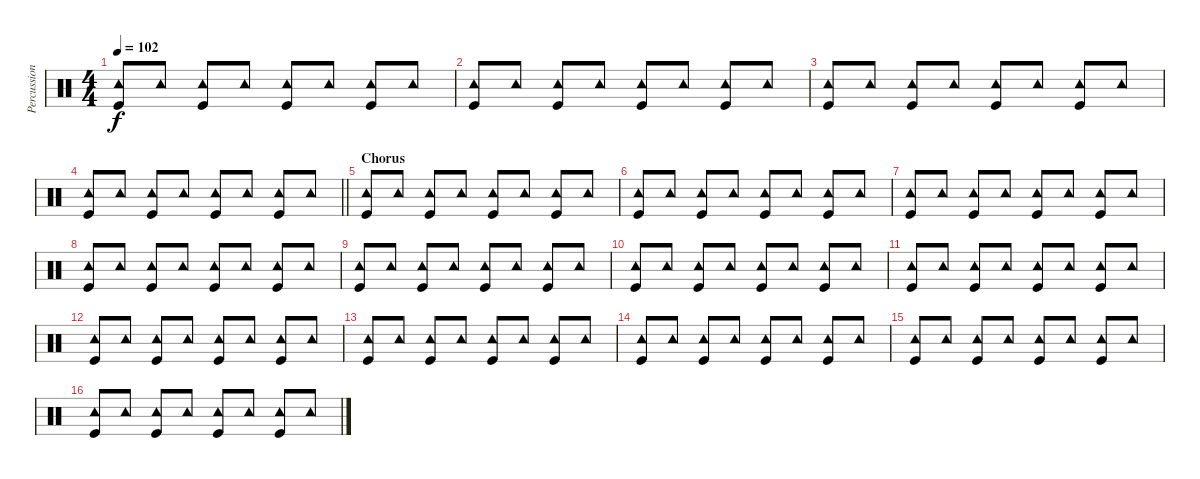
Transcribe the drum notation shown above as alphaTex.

\track ("Percussion" "Percussion") {instrument percussion}
\staff {score}
\articulation defaults
\ts (4 4)
\tempo 102
\clef neutral
\ks c
("Tambourine (hit)" "Kick (hit)").8{dy f} "Tambourine (hit)".8 ("Tambourine (hit)" "Kick (hit)").8 "Tambourine (hit)".8 ("Tambourine (hit)" "Kick (hit)").8 "Tambourine (hit)".8 ("Tambourine (hit)" "Kick (hit)").8 "Tambourine (hit)".8 |
("Tambourine (hit)" "Kick (hit)").8 "Tambourine (hit)".8 ("Tambourine (hit)" "Kick (hit)").8 "Tambourine (hit)".8 ("Tambourine (hit)" "Kick (hit)").8 "Tambourine (hit)".8 ("Tambourine (hit)" "Kick (hit)").8 "Tambourine (hit)".8 |
("Tambourine (hit)" "Kick (hit)").8 "Tambourine (hit)".8 ("Tambourine (hit)" "Kick (hit)").8 "Tambourine (hit)".8 ("Tambourine (hit)" "Kick (hit)").8 "Tambourine (hit)".8 ("Tambourine (hit)" "Kick (hit)").8 "Tambourine (hit)".8 |
\barLineRight lightlight
("Tambourine (hit)" "Kick (hit)").8 "Tambourine (hit)".8 ("Tambourine (hit)" "Kick (hit)").8 "Tambourine (hit)".8 ("Tambourine (hit)" "Kick (hit)").8 "Tambourine (hit)".8 ("Tambourine (hit)" "Kick (hit)").8 "Tambourine (hit)".8 |
\section ("" "Chorus")
("Tambourine (hit)" "Kick (hit)").8 "Tambourine (hit)".8 ("Tambourine (hit)" "Kick (hit)").8 "Tambourine (hit)".8 ("Tambourine (hit)" "Kick (hit)").8 "Tambourine (hit)".8 ("Tambourine (hit)" "Kick (hit)").8 "Tambourine (hit)".8 |
("Tambourine (hit)" "Kick (hit)").8 "Tambourine (hit)".8 ("Tambourine (hit)" "Kick (hit)").8 "Tambourine (hit)".8 ("Tambourine (hit)" "Kick (hit)").8 "Tambourine (hit)".8 ("Tambourine (hit)" "Kick (hit)").8 "Tambourine (hit)".8 |
("Tambourine (hit)" "Kick (hit)").8 "Tambourine (hit)".8 ("Tambourine (hit)" "Kick (hit)").8 "Tambourine (hit)".8 ("Tambourine (hit)" "Kick (hit)").8 "Tambourine (hit)".8 ("Tambourine (hit)" "Kick (hit)").8 "Tambourine (hit)".8 |
("Tambourine (hit)" "Kick (hit)").8 "Tambourine (hit)".8 ("Tambourine (hit)" "Kick (hit)").8 "Tambourine (hit)".8 ("Tambourine (hit)" "Kick (hit)").8 "Tambourine (hit)".8 ("Tambourine (hit)" "Kick (hit)").8 "Tambourine (hit)".8 |
("Tambourine (hit)" "Kick (hit)").8 "Tambourine (hit)".8 ("Tambourine (hit)" "Kick (hit)").8 "Tambourine (hit)".8 ("Tambourine (hit)" "Kick (hit)").8 "Tambourine (hit)".8 ("Tambourine (hit)" "Kick (hit)").8 "Tambourine (hit)".8 |
("Tambourine (hit)" "Kick (hit)").8 "Tambourine (hit)".8 ("Tambourine (hit)" "Kick (hit)").8 "Tambourine (hit)".8 ("Tambourine (hit)" "Kick (hit)").8 "Tambourine (hit)".8 ("Tambourine (hit)" "Kick (hit)").8 "Tambourine (hit)".8 |
("Tambourine (hit)" "Kick (hit)").8 "Tambourine (hit)".8 ("Tambourine (hit)" "Kick (hit)").8 "Tambourine (hit)".8 ("Tambourine (hit)" "Kick (hit)").8 "Tambourine (hit)".8 ("Tambourine (hit)" "Kick (hit)").8 "Tambourine (hit)".8 |
("Tambourine (hit)" "Kick (hit)").8 "Tambourine (hit)".8 ("Tambourine (hit)" "Kick (hit)").8 "Tambourine (hit)".8 ("Tambourine (hit)" "Kick (hit)").8 "Tambourine (hit)".8 ("Tambourine (hit)" "Kick (hit)").8 "Tambourine (hit)".8 |
("Tambourine (hit)" "Kick (hit)").8 "Tambourine (hit)".8 ("Tambourine (hit)" "Kick (hit)").8 "Tambourine (hit)".8 ("Tambourine (hit)" "Kick (hit)").8 "Tambourine (hit)".8 ("Tambourine (hit)" "Kick (hit)").8 "Tambourine (hit)".8 |
("Tambourine (hit)" "Kick (hit)").8 "Tambourine (hit)".8 ("Tambourine (hit)" "Kick (hit)").8 "Tambourine (hit)".8 ("Tambourine (hit)" "Kick (hit)").8 "Tambourine (hit)".8 ("Tambourine (hit)" "Kick (hit)").8 "Tambourine (hit)".8 |
("Tambourine (hit)" "Kick (hit)").8 "Tambourine (hit)".8 ("Tambourine (hit)" "Kick (hit)").8 "Tambourine (hit)".8 ("Tambourine (hit)" "Kick (hit)").8 "Tambourine (hit)".8 ("Tambourine (hit)" "Kick (hit)").8 "Tambourine (hit)".8 |
("Tambourine (hit)" "Kick (hit)").8 "Tambourine (hit)".8 ("Tambourine (hit)" "Kick (hit)").8 "Tambourine (hit)".8 ("Tambourine (hit)" "Kick (hit)").8 "Tambourine (hit)".8 ("Tambourine (hit)" "Kick (hit)").8 "Tambourine (hit)".8
